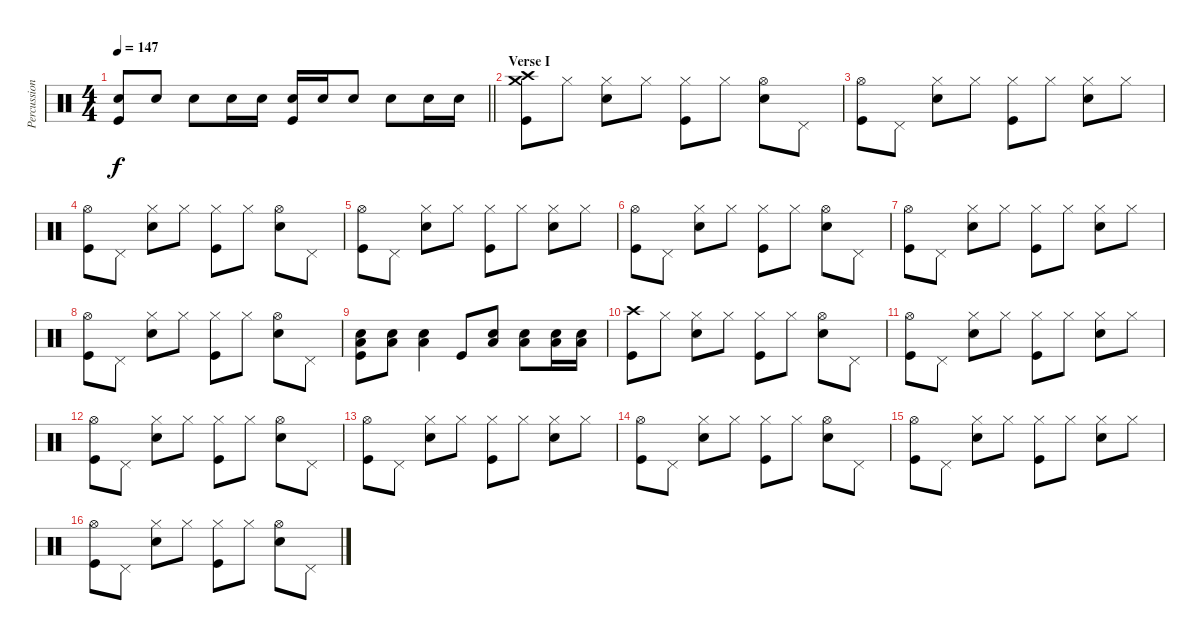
\track ("Percussion" "Percussion") {instrument percussion}
\staff {score}
\articulation defaults
\ts (4 4)
\tempo 147
\clef neutral
\barLineRight lightlight
\ks c
("Electric Snare (hit)" "Kick (hit)").8{dy f} "Electric Snare (hit)".8 "Electric Snare (hit)".8 "Electric Snare (hit)".16 "Electric Snare (hit)".16 ("Electric Snare (hit)" "Kick (hit)").16 "Electric Snare (hit)".16 "Electric Snare (hit)".8 "Electric Snare (hit)".8 "Electric Snare (hit)".16 "Electric Snare (hit)".16 |
\section ("" "Verse I")
("Crash high (hit)" "Crash medium (hit)" "Kick (hit)").8 "Hi-Hat (closed)".8 ("Hi-Hat (closed)" "Electric Snare (hit)").8 "Hi-Hat (closed)".8 ("Hi-Hat (closed)" "Kick (hit)").8 "Hi-Hat (closed)".8 ("Hi-Hat (open)" "Electric Snare (hit)").8 "Pedal Hi-Hat (hit)".8 |
("Hi-Hat (open)" "Kick (hit)").8 "Pedal Hi-Hat (hit)".8 ("Hi-Hat (closed)" "Electric Snare (hit)").8 "Hi-Hat (closed)".8 ("Hi-Hat (closed)" "Kick (hit)").8 "Hi-Hat (closed)".8 ("Hi-Hat (closed)" "Electric Snare (hit)").8 "Hi-Hat (closed)".8 |
("Hi-Hat (open)" "Kick (hit)").8 "Pedal Hi-Hat (hit)".8 ("Hi-Hat (closed)" "Electric Snare (hit)").8 "Hi-Hat (closed)".8 ("Hi-Hat (closed)" "Kick (hit)").8 "Hi-Hat (closed)".8 ("Hi-Hat (open)" "Electric Snare (hit)").8 "Pedal Hi-Hat (hit)".8 |
("Hi-Hat (open)" "Kick (hit)").8 "Pedal Hi-Hat (hit)".8 ("Hi-Hat (closed)" "Electric Snare (hit)").8 "Hi-Hat (closed)".8 ("Hi-Hat (closed)" "Kick (hit)").8 "Hi-Hat (closed)".8 ("Hi-Hat (closed)" "Electric Snare (hit)").8 "Hi-Hat (closed)".8 |
("Hi-Hat (open)" "Kick (hit)").8 "Pedal Hi-Hat (hit)".8 ("Hi-Hat (closed)" "Electric Snare (hit)").8 "Hi-Hat (closed)".8 ("Hi-Hat (closed)" "Kick (hit)").8 "Hi-Hat (closed)".8 ("Hi-Hat (open)" "Electric Snare (hit)").8 "Pedal Hi-Hat (hit)".8 |
("Hi-Hat (open)" "Kick (hit)").8 "Pedal Hi-Hat (hit)".8 ("Hi-Hat (closed)" "Electric Snare (hit)").8 "Hi-Hat (closed)".8 ("Hi-Hat (closed)" "Kick (hit)").8 "Hi-Hat (closed)".8 ("Hi-Hat (closed)" "Electric Snare (hit)").8 "Hi-Hat (closed)".8 |
("Hi-Hat (open)" "Kick (hit)").8 "Pedal Hi-Hat (hit)".8 ("Hi-Hat (closed)" "Electric Snare (hit)").8 "Hi-Hat (closed)".8 ("Hi-Hat (closed)" "Kick (hit)").8 "Hi-Hat (closed)".8 ("Hi-Hat (open)" "Electric Snare (hit)").8 "Pedal Hi-Hat (hit)".8 |
("Electric Snare (hit)" "Low Floor Tom (hit)" "Kick (hit)").8 ("Electric Snare (hit)" "Low Floor Tom (hit)").8 ("Electric Snare (hit)" "Low Floor Tom (hit)").4 "Kick (hit)".8 ("Electric Snare (hit)" "Low Floor Tom (hit)").8 ("Electric Snare (hit)" "Low Floor Tom (hit)").8 ("Electric Snare (hit)" "Low Floor Tom (hit)").16 ("Electric Snare (hit)" "Low Floor Tom (hit)").16 |
("Crash high (hit)" "Kick (hit)").8 "Hi-Hat (closed)".8 ("Hi-Hat (closed)" "Electric Snare (hit)").8 "Hi-Hat (closed)".8 ("Hi-Hat (closed)" "Kick (hit)").8 "Hi-Hat (closed)".8 ("Hi-Hat (open)" "Electric Snare (hit)").8 "Pedal Hi-Hat (hit)".8 |
("Hi-Hat (open)" "Kick (hit)").8 "Pedal Hi-Hat (hit)".8 ("Hi-Hat (closed)" "Electric Snare (hit)").8 "Hi-Hat (closed)".8 ("Hi-Hat (closed)" "Kick (hit)").8 "Hi-Hat (closed)".8 ("Hi-Hat (closed)" "Electric Snare (hit)").8 "Hi-Hat (closed)".8 |
("Hi-Hat (open)" "Kick (hit)").8 "Pedal Hi-Hat (hit)".8 ("Hi-Hat (closed)" "Electric Snare (hit)").8 "Hi-Hat (closed)".8 ("Hi-Hat (closed)" "Kick (hit)").8 "Hi-Hat (closed)".8 ("Hi-Hat (open)" "Electric Snare (hit)").8 "Pedal Hi-Hat (hit)".8 |
("Hi-Hat (open)" "Kick (hit)").8 "Pedal Hi-Hat (hit)".8 ("Hi-Hat (closed)" "Electric Snare (hit)").8 "Hi-Hat (closed)".8 ("Hi-Hat (closed)" "Kick (hit)").8 "Hi-Hat (closed)".8 ("Hi-Hat (closed)" "Electric Snare (hit)").8 "Hi-Hat (closed)".8 |
("Hi-Hat (open)" "Kick (hit)").8 "Pedal Hi-Hat (hit)".8 ("Hi-Hat (closed)" "Electric Snare (hit)").8 "Hi-Hat (closed)".8 ("Hi-Hat (closed)" "Kick (hit)").8 "Hi-Hat (closed)".8 ("Hi-Hat (open)" "Electric Snare (hit)").8 "Pedal Hi-Hat (hit)".8 |
("Hi-Hat (open)" "Kick (hit)").8 "Pedal Hi-Hat (hit)".8 ("Hi-Hat (closed)" "Electric Snare (hit)").8 "Hi-Hat (closed)".8 ("Hi-Hat (closed)" "Kick (hit)").8 "Hi-Hat (closed)".8 ("Hi-Hat (closed)" "Electric Snare (hit)").8 "Hi-Hat (closed)".8 |
("Hi-Hat (open)" "Kick (hit)").8 "Pedal Hi-Hat (hit)".8 ("Hi-Hat (closed)" "Electric Snare (hit)").8 "Hi-Hat (closed)".8 ("Hi-Hat (closed)" "Kick (hit)").8 "Hi-Hat (closed)".8 ("Hi-Hat (open)" "Electric Snare (hit)").8 "Pedal Hi-Hat (hit)".8
